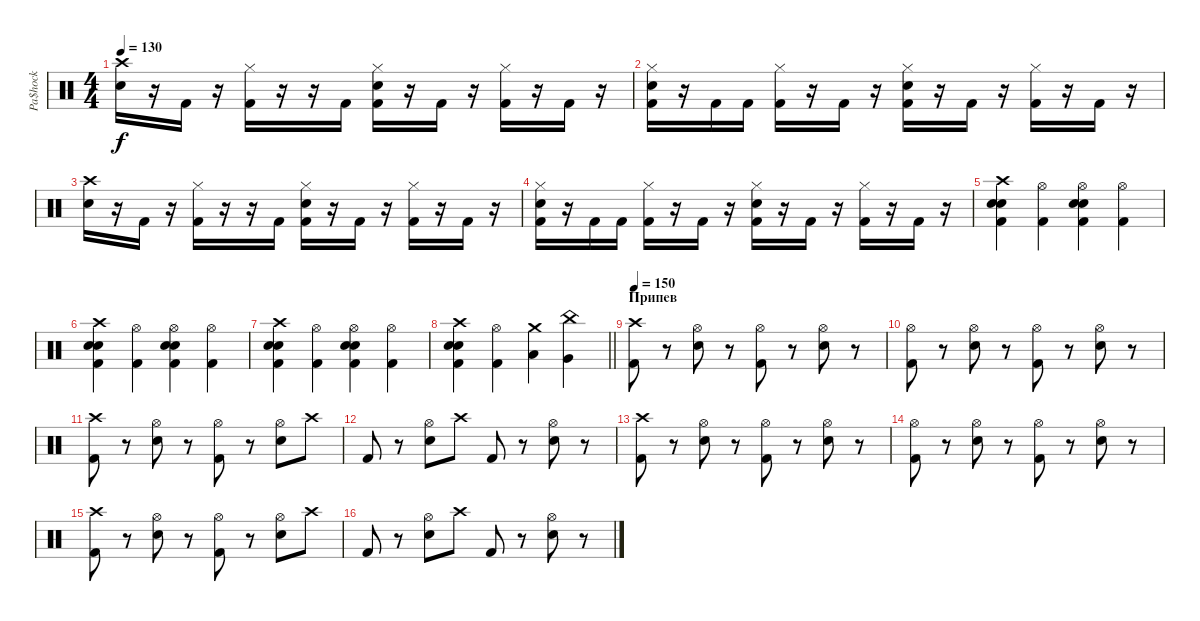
\track ("Pa$hock" "Pa$hock") {instrument percussion}
\staff {score}
\articulation defaults
\ts (4 4)
\tempo 130
\clef neutral
\ks c
("Crash high (hit)" "Snare (hit) 2").16{dy f} r.16 "Kick (hit) 2".16 r.16 ("Hi-Hat (closed)" "Kick (hit) 2").16 r.16 r.16 "Kick (hit) 2".16 ("Hi-Hat (closed)" "Kick (hit) 2" "Snare (hit) 2").16 r.16 "Kick (hit) 2".16 r.16 ("Kick (hit) 2" "Hi-Hat (closed)").16 r.16 "Kick (hit) 2".16 r.16 |
("Kick (hit) 2" "Snare (hit) 2" "Hi-Hat (closed)").16 r.16 "Kick (hit) 2".16 "Kick (hit) 2".16 ("Kick (hit) 2" "Hi-Hat (closed)").16 r.16 "Kick (hit) 2".16 r.16 ("Kick (hit) 2" "Hi-Hat (closed)" "Snare (hit) 2").16 r.16 "Kick (hit) 2".16 r.16 ("Kick (hit) 2" "Hi-Hat (closed)").16 r.16 "Kick (hit) 2".16 r.16 |
("Crash high (hit)" "Snare (hit) 2").16 r.16 "Kick (hit) 2".16 r.16 ("Hi-Hat (closed)" "Kick (hit) 2").16 r.16 r.16 "Kick (hit) 2".16 ("Hi-Hat (closed)" "Kick (hit) 2" "Snare (hit) 2").16 r.16 "Kick (hit) 2".16 r.16 ("Kick (hit) 2" "Hi-Hat (closed)").16 r.16 "Kick (hit) 2".16 r.16 |
("Kick (hit) 2" "Snare (hit) 2" "Hi-Hat (closed)").16 r.16 "Kick (hit) 2".16 "Kick (hit) 2".16 ("Kick (hit) 2" "Hi-Hat (closed)").16 r.16 "Kick (hit) 2".16 r.16 ("Kick (hit) 2" "Hi-Hat (closed)" "Snare (hit) 2").16 r.16 "Kick (hit) 2".16 r.16 ("Kick (hit) 2" "Hi-Hat (closed)").16 r.16 "Kick (hit) 2".16 r.16 |
("Crash high (hit)" "Kick (hit) 2" "Snare (hit) 2" "Electric Snare (hit)").4 ("Hi-Hat (open)" "Kick (hit) 2").4 ("Hi-Hat (open)" "Snare (hit) 2" "Electric Snare (hit)" "Kick (hit) 2").4 ("Hi-Hat (open)" "Kick (hit) 2").4 |
("Crash high (hit)" "Kick (hit) 2" "Snare (hit) 2" "Electric Snare (hit)").4 ("Hi-Hat (open)" "Kick (hit) 2").4 ("Hi-Hat (open)" "Snare (hit) 2" "Electric Snare (hit)" "Kick (hit) 2").4 ("Hi-Hat (open)" "Kick (hit) 2").4 |
("Crash high (hit)" "Kick (hit) 2" "Snare (hit) 2" "Electric Snare (hit)").4 ("Hi-Hat (open)" "Kick (hit) 2").4 ("Hi-Hat (open)" "Snare (hit) 2" "Electric Snare (hit)" "Kick (hit) 2").4 ("Hi-Hat (open)" "Kick (hit) 2").4 |
\barLineRight lightlight
("Crash high (hit)" "Kick (hit) 2" "Snare (hit) 2" "Electric Snare (hit)").4 ("Hi-Hat (open)" "Kick (hit) 2").4 ("Crash medium (hit)" "Low Tom (hit)").4 ("China (hit)" "Very Low Tom (hit)").4 |
\section ("" "Припев")
\tempo 150
("Crash high (hit)" "Kick (hit) 2").8 r.8 ("Hi-Hat (open)" "Snare (hit) 2").8 r.8 ("Hi-Hat (open)" "Kick (hit) 2").8 r.8 ("Hi-Hat (open)" "Snare (hit) 2").8 r.8 |
("Hi-Hat (open)" "Kick (hit) 2").8 r.8 ("Hi-Hat (open)" "Snare (hit) 2").8 r.8 ("Hi-Hat (open)" "Kick (hit) 2").8 r.8 ("Hi-Hat (open)" "Snare (hit) 2").8 r.8 |
("Crash high (hit)" "Kick (hit) 2").8 r.8 ("Hi-Hat (open)" "Snare (hit) 2").8 r.8 ("Hi-Hat (open)" "Kick (hit) 2").8 r.8 ("Hi-Hat (open)" "Snare (hit) 2").8 "Crash high (hit)".8 |
"Kick (hit) 2".8 r.8 ("Hi-Hat (open)" "Snare (hit) 2").8 "Crash high (hit)".8 "Kick (hit) 2".8 r.8 ("Hi-Hat (open)" "Snare (hit) 2").8 r.8 |
("Crash high (hit)" "Kick (hit) 2").8 r.8 ("Hi-Hat (open)" "Snare (hit) 2").8 r.8 ("Hi-Hat (open)" "Kick (hit) 2").8 r.8 ("Hi-Hat (open)" "Snare (hit) 2").8 r.8 |
("Hi-Hat (open)" "Kick (hit) 2").8 r.8 ("Hi-Hat (open)" "Snare (hit) 2").8 r.8 ("Hi-Hat (open)" "Kick (hit) 2").8 r.8 ("Hi-Hat (open)" "Snare (hit) 2").8 r.8 |
("Crash high (hit)" "Kick (hit) 2").8 r.8 ("Hi-Hat (open)" "Snare (hit) 2").8 r.8 ("Hi-Hat (open)" "Kick (hit) 2").8 r.8 ("Hi-Hat (open)" "Snare (hit) 2").8 "Crash high (hit)".8 |
"Kick (hit) 2".8 r.8 ("Hi-Hat (open)" "Snare (hit) 2").8 "Crash high (hit)".8 "Kick (hit) 2".8 r.8 ("Hi-Hat (open)" "Snare (hit) 2").8 r.8
